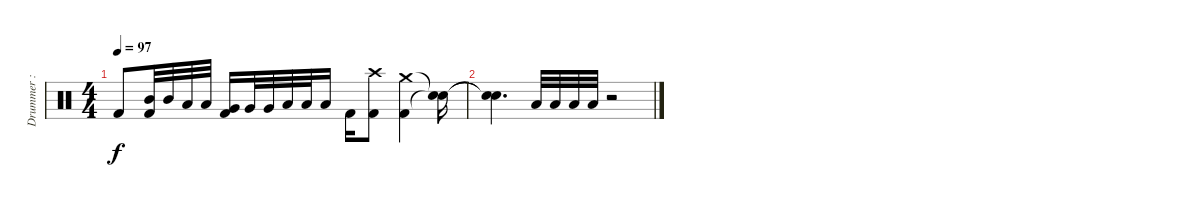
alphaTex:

\track ("Drummer : Tainaka Ritsu - Tan" "Drummer : ") {instrument percussion}
\staff {score}
\articulation defaults
\ts (4 4)
\tempo 97
\clef neutral
\ks c "Kick (hit) 2".8{dy f}
("Mid Tom (hit)" "Kick (hit) 2").32 "Mid Tom (hit)".32 "Low Tom (hit)".32 "Low Tom (hit)".32 ("Very Low Tom (hit)" "Kick (hit) 2").16 "Very Low Tom (hit)".32 "Very Low Tom (hit)".32 "Low Floor Tom (hit)".32 "Low Floor Tom (hit)".32 "Low Floor Tom (hit)".16 "Kick (hit) 2".16 ("Crash high (hit)" "Kick (hit) 2").8 ("Crash medium (hit)" "Kick (hit) 2").4 ("Snare (hit)"{t} "Snare (hit)"{t}).16 |
("Snare (hit)"{t} "Snare (hit)"{t}).4{d} "Low Floor Tom (hit)".32 "Low Floor Tom (hit)".32 "Low Floor Tom (hit)".32 "Low Floor Tom (hit)".32 r.2
